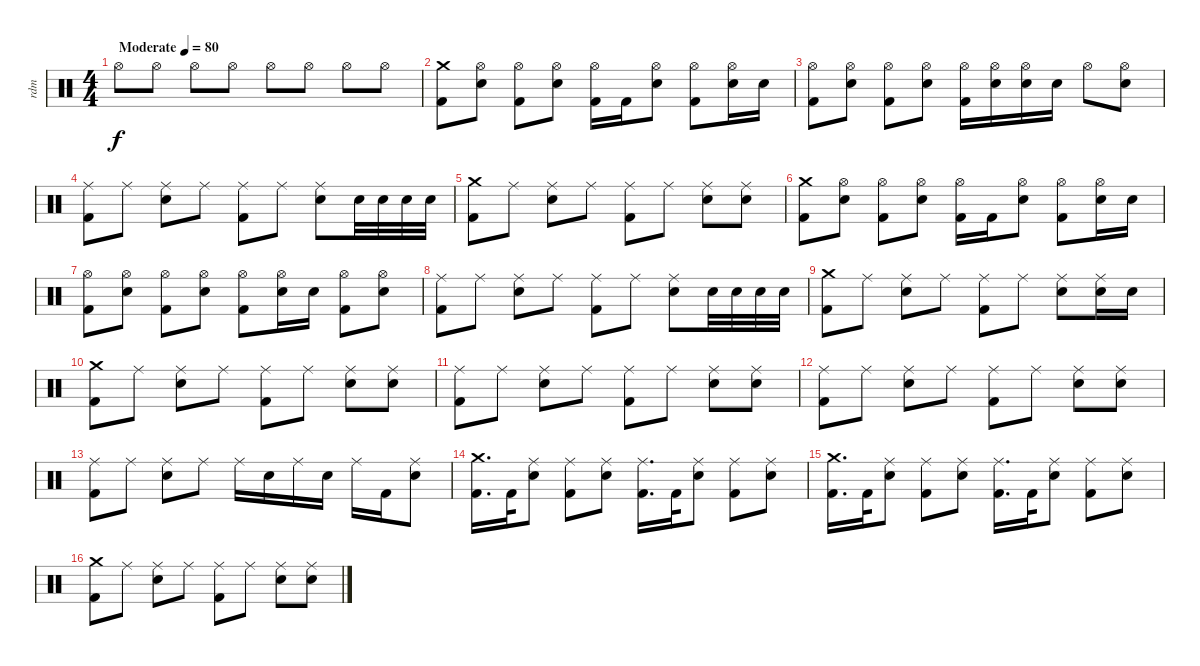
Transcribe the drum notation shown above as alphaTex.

\track ("rdm" "rdm") {instrument percussion}
\staff {score}
\articulation defaults
\ts (4 4)
\tempo (80 "Moderate")
\clef neutral
\ks c "Hi-Hat (open)".8{dy f} "Hi-Hat (open)".8 "Hi-Hat (open)".8 "Hi-Hat (open)".8 "Hi-Hat (open)".8 "Hi-Hat (open)".8 "Hi-Hat (open)".8 "Hi-Hat (open)".8
|
("Crash medium (hit)" "Kick (hit) 2").8 ("Hi-Hat (open)" "Snare (hit) 2").8 ("Hi-Hat (open)" "Kick (hit) 2").8 ("Hi-Hat (open)" "Snare (hit) 2").8 ("Hi-Hat (open)" "Kick (hit) 2").16 "Kick (hit) 2".16 ("Hi-Hat (open)" "Snare (hit) 2").8 ("Hi-Hat (open)" "Kick (hit) 2").8 ("Hi-Hat (open)" "Snare (hit) 2").16 "Snare (hit) 2".16 |
("Hi-Hat (open)" "Kick (hit) 2").8 ("Hi-Hat (open)" "Snare (hit) 2").8 ("Hi-Hat (open)" "Kick (hit) 2").8 ("Hi-Hat (open)" "Snare (hit) 2").8 ("Hi-Hat (open)" "Kick (hit) 2").16 ("Hi-Hat (open)" "Snare (hit) 2").16 ("Hi-Hat (open)" "Snare (hit) 2").16 "Snare (hit) 2".16 "Hi-Hat (open)".8 ("Hi-Hat (open)" "Snare (hit) 2").8 |
("Ride (middle)" "Kick (hit) 2").8 "Ride (middle)".8 ("Ride (middle)" "Snare (hit) 2").8 "Ride (middle)".8 ("Ride (middle)" "Kick (hit) 2").8 "Ride (middle)".8 ("Ride (middle)" "Snare (hit) 2").8 "Snare (hit) 2".32 "Snare (hit) 2".32 "Snare (hit) 2".32 "Snare (hit) 2".32 |
("Crash medium (hit)" "Kick (hit) 2").8 "Ride (middle)".8 ("Ride (middle)" "Snare (hit) 2").8 "Ride (middle)".8 ("Ride (middle)" "Kick (hit) 2").8 "Ride (middle)".8 ("Ride (middle)" "Snare (hit) 2").8 ("Ride (middle)" "Snare (hit) 2").8 |
("Crash medium (hit)" "Kick (hit) 2").8 ("Hi-Hat (open)" "Snare (hit) 2").8 ("Hi-Hat (open)" "Kick (hit) 2").8 ("Hi-Hat (open)" "Snare (hit) 2").8 ("Hi-Hat (open)" "Kick (hit) 2").16 "Kick (hit) 2".16 ("Hi-Hat (open)" "Snare (hit) 2").8 ("Hi-Hat (open)" "Kick (hit) 2").8 ("Hi-Hat (open)" "Snare (hit) 2").16 "Snare (hit) 2".16 |
("Hi-Hat (open)" "Kick (hit) 2").8 ("Hi-Hat (open)" "Snare (hit) 2").8 ("Hi-Hat (open)" "Kick (hit) 2").8 ("Hi-Hat (open)" "Snare (hit) 2").8 ("Hi-Hat (open)" "Kick (hit) 2").8 ("Hi-Hat (open)" "Snare (hit) 2").16 "Snare (hit) 2".16 ("Hi-Hat (open)" "Kick (hit) 2").8 ("Hi-Hat (open)" "Snare (hit) 2").8 |
("Ride (middle)" "Kick (hit) 2").8 "Ride (middle)".8 ("Ride (middle)" "Snare (hit) 2").8 "Ride (middle)".8 ("Ride (middle)" "Kick (hit) 2").8 "Ride (middle)".8 ("Ride (middle)" "Snare (hit) 2").8 "Snare (hit) 2".32 "Snare (hit) 2".32 "Snare (hit) 2".32 "Snare (hit) 2".32 |
("Crash medium (hit)" "Kick (hit) 2").8 "Ride (middle)".8 ("Ride (middle)" "Snare (hit) 2").8 "Ride (middle)".8 ("Ride (middle)" "Kick (hit) 2").8 "Ride (middle)".8 ("Ride (middle)" "Snare (hit) 2").8 ("Ride (middle)" "Snare (hit) 2").16 "Snare (hit) 2".16 |
("Crash medium (hit)" "Kick (hit) 2").8 "Ride (middle)".8 ("Ride (middle)" "Snare (hit) 2").8 "Ride (middle)".8 ("Ride (middle)" "Kick (hit) 2").8 "Ride (middle)".8 ("Ride (middle)" "Snare (hit) 2").8 ("Ride (middle)" "Snare (hit) 2").8 |
("Ride (middle)" "Kick (hit) 2").8 "Ride (middle)".8 ("Ride (middle)" "Snare (hit) 2").8 "Ride (middle)".8 ("Ride (middle)" "Kick (hit) 2").8 "Ride (middle)".8 ("Ride (middle)" "Snare (hit) 2").8 ("Ride (middle)" "Snare (hit) 2").8 |
("Ride (middle)" "Kick (hit) 2").8 "Ride (middle)".8 ("Ride (middle)" "Snare (hit) 2").8 "Ride (middle)".8 ("Ride (middle)" "Kick (hit) 2").8 "Ride (middle)".8 ("Ride (middle)" "Snare (hit) 2").8 ("Ride (middle)" "Snare (hit) 2").8 |
("Ride (middle)" "Kick (hit) 2").8 "Ride (middle)".8 ("Ride (middle)" "Snare (hit) 2").8 "Ride (middle)".8 "Ride (middle)".16 "Snare (hit) 2".16 "Ride (middle)".16 "Snare (hit) 2".16 "Ride (middle)".16 "Kick (hit) 2".16 ("Ride (middle)" "Snare (hit) 2").8 |
("Crash medium (hit)" "Kick (hit) 2").16{d} "Kick (hit) 2".32 ("Ride (middle)" "Snare (hit) 2").8 ("Ride (middle)" "Kick (hit) 2").8 ("Ride (middle)" "Snare (hit) 2").8 ("Ride (middle)" "Kick (hit) 2").16{d} "Kick (hit) 2".32 ("Ride (middle)" "Snare (hit) 2").8 ("Ride (middle)" "Kick (hit) 2").8 ("Ride (middle)" "Snare (hit) 2").8 |
("Crash medium (hit)" "Kick (hit) 2").16{d} "Kick (hit) 2".32 ("Ride (middle)" "Snare (hit) 2").8 ("Ride (middle)" "Kick (hit) 2").8 ("Ride (middle)" "Snare (hit) 2").8 ("Ride (middle)" "Kick (hit) 2").16{d} "Kick (hit) 2".32 ("Ride (middle)" "Snare (hit) 2").8 ("Ride (middle)" "Kick (hit) 2").8 ("Ride (middle)" "Snare (hit) 2").8 |
("Crash medium (hit)" "Kick (hit) 2").8 "Ride (middle)".8 ("Ride (middle)" "Snare (hit) 2").8 "Ride (middle)".8 ("Ride (middle)" "Kick (hit) 2").8 "Ride (middle)".8 ("Ride (middle)" "Snare (hit) 2").8 ("Ride (middle)" "Snare (hit) 2").8
